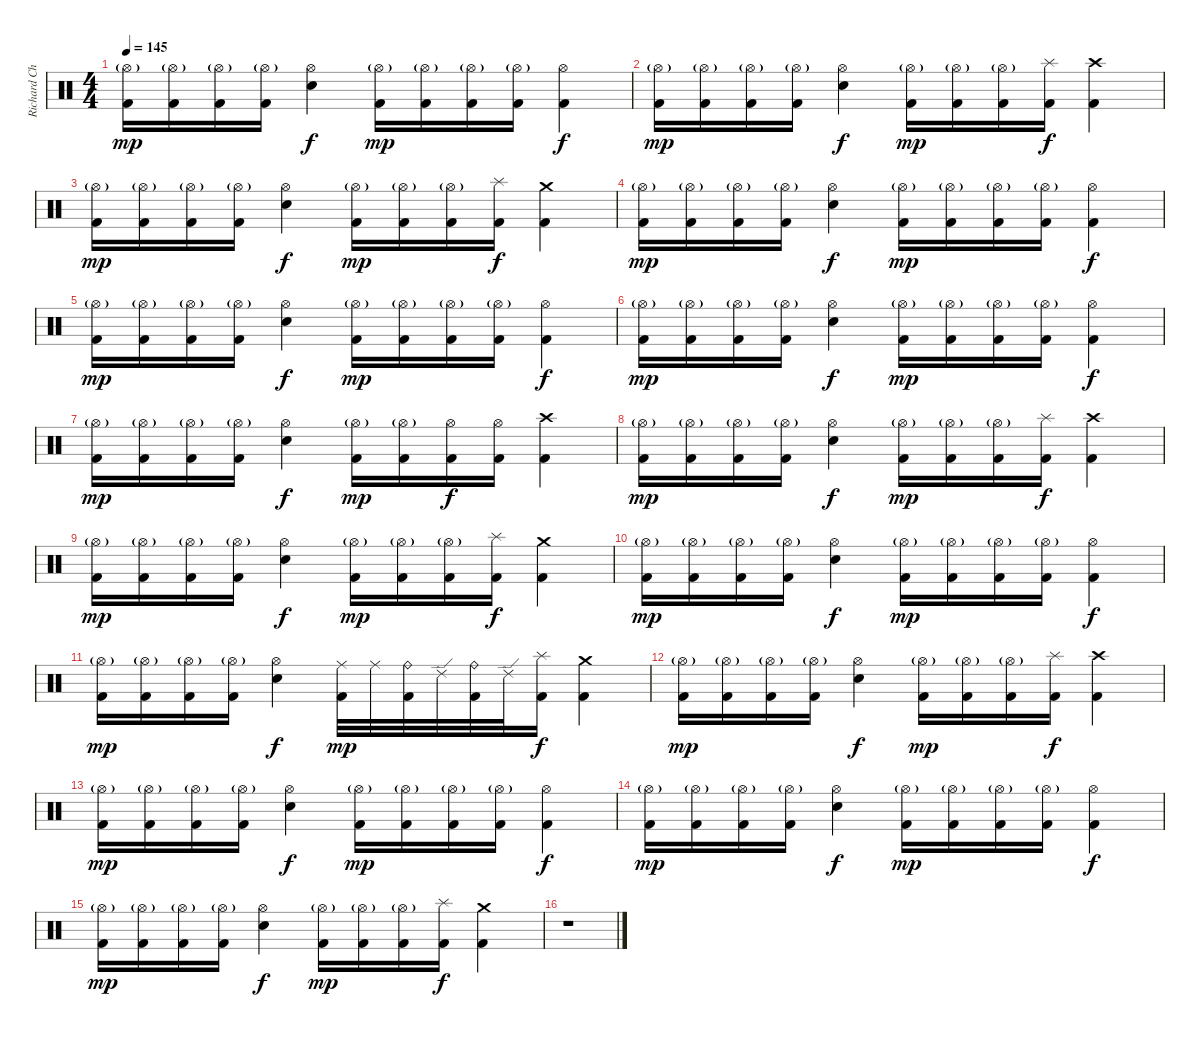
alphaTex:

\track ("Richard Christy" "Richard Ch") {instrument percussion}
\staff {score}
\articulation defaults
\ts (4 4)
\tempo 145
\clef neutral
\ks c
("Hi-Hat (open)"{g} "Kick (hit) 2").16{dy mp} ("Hi-Hat (open)"{g} "Kick (hit) 2").16 ("Hi-Hat (open)"{g} "Kick (hit) 2").16 ("Hi-Hat (open)"{g} "Kick (hit) 2").16 ("Hi-Hat (open)" "Electric Snare (hit)").4{dy f} ("Hi-Hat (open)"{g} "Kick (hit) 2").16{dy mp} ("Hi-Hat (open)"{g} "Kick (hit) 2").16 ("Hi-Hat (open)"{g} "Kick (hit) 2").16 ("Hi-Hat (open)"{g} "Kick (hit) 2").16 ("Hi-Hat (open)" "Kick (hit) 2").4{dy f} |
("Hi-Hat (open)"{g} "Kick (hit) 2").16{dy mp} ("Hi-Hat (open)"{g} "Kick (hit) 2").16 ("Hi-Hat (open)"{g} "Kick (hit) 2").16 ("Hi-Hat (open)"{g} "Kick (hit) 2").16 ("Hi-Hat (open)" "Electric Snare (hit)").4{dy f} ("Hi-Hat (open)"{g} "Kick (hit) 2").16{dy mp} ("Hi-Hat (open)"{g} "Kick (hit) 2").16 ("Hi-Hat (open)"{g} "Kick (hit) 2").16 ("Splash (hit)" "Kick (hit) 2").16{dy f} ("Crash high (hit)" "Kick (hit) 2").4 |
("Hi-Hat (open)"{g} "Kick (hit) 2").16{dy mp} ("Hi-Hat (open)"{g} "Kick (hit) 2").16 ("Hi-Hat (open)"{g} "Kick (hit) 2").16 ("Hi-Hat (open)"{g} "Kick (hit) 2").16 ("Hi-Hat (open)" "Electric Snare (hit)").4{dy f} ("Hi-Hat (open)"{g} "Kick (hit) 2").16{dy mp} ("Hi-Hat (open)"{g} "Kick (hit) 2").16 ("Hi-Hat (open)"{g} "Kick (hit) 2").16 ("Splash (hit)" "Kick (hit) 2").16{dy f} ("Crash medium (hit)" "Kick (hit) 2").4 |
("Hi-Hat (open)"{g} "Kick (hit) 2").16{dy mp} ("Hi-Hat (open)"{g} "Kick (hit) 2").16 ("Hi-Hat (open)"{g} "Kick (hit) 2").16 ("Hi-Hat (open)"{g} "Kick (hit) 2").16 ("Hi-Hat (open)" "Electric Snare (hit)").4{dy f} ("Hi-Hat (open)"{g} "Kick (hit) 2").16{dy mp} ("Hi-Hat (open)"{g} "Kick (hit) 2").16 ("Hi-Hat (open)"{g} "Kick (hit) 2").16 ("Hi-Hat (open)"{g} "Kick (hit) 2").16 ("Hi-Hat (open)" "Kick (hit) 2").4{dy f} |
("Hi-Hat (open)"{g} "Kick (hit) 2").16{dy mp} ("Hi-Hat (open)"{g} "Kick (hit) 2").16 ("Hi-Hat (open)"{g} "Kick (hit) 2").16 ("Hi-Hat (open)"{g} "Kick (hit) 2").16 ("Hi-Hat (open)" "Electric Snare (hit)").4{dy f} ("Hi-Hat (open)"{g} "Kick (hit) 2").16{dy mp} ("Hi-Hat (open)"{g} "Kick (hit) 2").16 ("Hi-Hat (open)"{g} "Kick (hit) 2").16 ("Hi-Hat (open)"{g} "Kick (hit) 2").16 ("Hi-Hat (open)" "Kick (hit) 2").4{dy f} |
("Hi-Hat (open)"{g} "Kick (hit) 2").16{dy mp} ("Hi-Hat (open)"{g} "Kick (hit) 2").16 ("Hi-Hat (open)"{g} "Kick (hit) 2").16 ("Hi-Hat (open)"{g} "Kick (hit) 2").16 ("Hi-Hat (open)" "Electric Snare (hit)").4{dy f} ("Hi-Hat (open)"{g} "Kick (hit) 2").16{dy mp} ("Hi-Hat (open)"{g} "Kick (hit) 2").16 ("Hi-Hat (open)"{g} "Kick (hit) 2").16 ("Hi-Hat (open)"{g} "Kick (hit) 2").16 ("Hi-Hat (open)" "Kick (hit) 2").4{dy f} |
("Hi-Hat (open)"{g} "Kick (hit) 2").16{dy mp} ("Hi-Hat (open)"{g} "Kick (hit) 2").16 ("Hi-Hat (open)"{g} "Kick (hit) 2").16 ("Hi-Hat (open)"{g} "Kick (hit) 2").16 ("Hi-Hat (open)" "Electric Snare (hit)").4{dy f} ("Hi-Hat (open)"{g} "Kick (hit) 2").16{dy mp} ("Hi-Hat (open)"{g} "Kick (hit) 2").16 ("Hi-Hat (open)" "Kick (hit) 2").16{dy f} ("Hi-Hat (open)" "Kick (hit) 2").16 ("Crash high (hit)" "Kick (hit) 2").4 |
("Hi-Hat (open)"{g} "Kick (hit) 2").16{dy mp} ("Hi-Hat (open)"{g} "Kick (hit) 2").16 ("Hi-Hat (open)"{g} "Kick (hit) 2").16 ("Hi-Hat (open)"{g} "Kick (hit) 2").16 ("Hi-Hat (open)" "Electric Snare (hit)").4{dy f} ("Hi-Hat (open)"{g} "Kick (hit) 2").16{dy mp} ("Hi-Hat (open)"{g} "Kick (hit) 2").16 ("Hi-Hat (open)"{g} "Kick (hit) 2").16 ("Splash (hit)" "Kick (hit) 2").16{dy f} ("Crash high (hit)" "Kick (hit) 2").4 |
("Hi-Hat (open)"{g} "Kick (hit) 2").16{dy mp} ("Hi-Hat (open)"{g} "Kick (hit) 2").16 ("Hi-Hat (open)"{g} "Kick (hit) 2").16 ("Hi-Hat (open)"{g} "Kick (hit) 2").16 ("Hi-Hat (open)" "Electric Snare (hit)").4{dy f} ("Hi-Hat (open)"{g} "Kick (hit) 2").16{dy mp} ("Hi-Hat (open)"{g} "Kick (hit) 2").16 ("Hi-Hat (open)"{g} "Kick (hit) 2").16 ("Splash (hit)" "Kick (hit) 2").16{dy f} ("Crash medium (hit)" "Kick (hit) 2").4 |
("Hi-Hat (open)"{g} "Kick (hit) 2").16{dy mp volume 7} ("Hi-Hat (open)"{g} "Kick (hit) 2").16 ("Hi-Hat (open)"{g} "Kick (hit) 2").16 ("Hi-Hat (open)"{g} "Kick (hit) 2").16 ("Hi-Hat (open)" "Electric Snare (hit)").4{dy f} ("Hi-Hat (open)"{g} "Kick (hit) 2").16{dy mp} ("Hi-Hat (open)"{g} "Kick (hit) 2").16 ("Hi-Hat (open)"{g} "Kick (hit) 2").16 ("Hi-Hat (open)"{g} "Kick (hit) 2").16 ("Hi-Hat (open)" "Kick (hit) 2").4{dy f} |
("Hi-Hat (open)"{g} "Kick (hit) 2").16{dy mp} ("Hi-Hat (open)"{g} "Kick (hit) 2").16 ("Hi-Hat (open)"{g} "Kick (hit) 2").16 ("Hi-Hat (open)"{g} "Kick (hit) 2").16 ("Hi-Hat (open)" "Electric Snare (hit)").4{dy f} ("Ride (middle)" "Kick (hit) 2").32{dy mp} "Ride (middle)".32 ("Ride (bell)" "Kick (hit) 2").32 "Ride (edge) 2".32 ("Ride (bell)" "Kick (hit) 2").32 "Ride (edge) 2".32 ("Splash (hit)" "Kick (hit) 2").16{dy f} ("Crash medium (hit)" "Kick (hit) 2").4 |
("Hi-Hat (open)"{g} "Kick (hit) 2").16{dy mp} ("Hi-Hat (open)"{g} "Kick (hit) 2").16 ("Hi-Hat (open)"{g} "Kick (hit) 2").16 ("Hi-Hat (open)"{g} "Kick (hit) 2").16 ("Hi-Hat (open)" "Electric Snare (hit)").4{dy f} ("Hi-Hat (open)"{g} "Kick (hit) 2").16{dy mp} ("Hi-Hat (open)"{g} "Kick (hit) 2").16 ("Hi-Hat (open)"{g} "Kick (hit) 2").16 ("Splash (hit)" "Kick (hit) 2").16{dy f} ("Crash high (hit)" "Kick (hit) 2").4 |
("Hi-Hat (open)"{g} "Kick (hit) 2").16{dy mp} ("Hi-Hat (open)"{g} "Kick (hit) 2").16 ("Hi-Hat (open)"{g} "Kick (hit) 2").16 ("Hi-Hat (open)"{g} "Kick (hit) 2").16 ("Hi-Hat (open)" "Electric Snare (hit)").4{dy f} ("Hi-Hat (open)"{g} "Kick (hit) 2").16{dy mp} ("Hi-Hat (open)"{g} "Kick (hit) 2").16 ("Hi-Hat (open)"{g} "Kick (hit) 2").16 ("Hi-Hat (open)"{g} "Kick (hit) 2").16 ("Hi-Hat (open)" "Kick (hit) 2").4{dy f} |
("Hi-Hat (open)"{g} "Kick (hit) 2").16{dy mp volume 1} ("Hi-Hat (open)"{g} "Kick (hit) 2").16 ("Hi-Hat (open)"{g} "Kick (hit) 2").16 ("Hi-Hat (open)"{g} "Kick (hit) 2").16 ("Hi-Hat (open)" "Electric Snare (hit)").4{dy f} ("Hi-Hat (open)"{g} "Kick (hit) 2").16{dy mp} ("Hi-Hat (open)"{g} "Kick (hit) 2").16 ("Hi-Hat (open)"{g} "Kick (hit) 2").16 ("Hi-Hat (open)"{g} "Kick (hit) 2").16 ("Hi-Hat (open)" "Kick (hit) 2").4{dy f} |
("Hi-Hat (open)"{g} "Kick (hit) 2").16{dy mp} ("Hi-Hat (open)"{g} "Kick (hit) 2").16 ("Hi-Hat (open)"{g} "Kick (hit) 2").16 ("Hi-Hat (open)"{g} "Kick (hit) 2").16 ("Hi-Hat (open)" "Electric Snare (hit)").4{dy f} ("Hi-Hat (open)"{g} "Kick (hit) 2").16{dy mp} ("Hi-Hat (open)"{g} "Kick (hit) 2").16 ("Hi-Hat (open)"{g} "Kick (hit) 2").16 ("Splash (hit)" "Kick (hit) 2").16{dy f} ("Crash medium (hit)" "Kick (hit) 2").4 |
r.1
